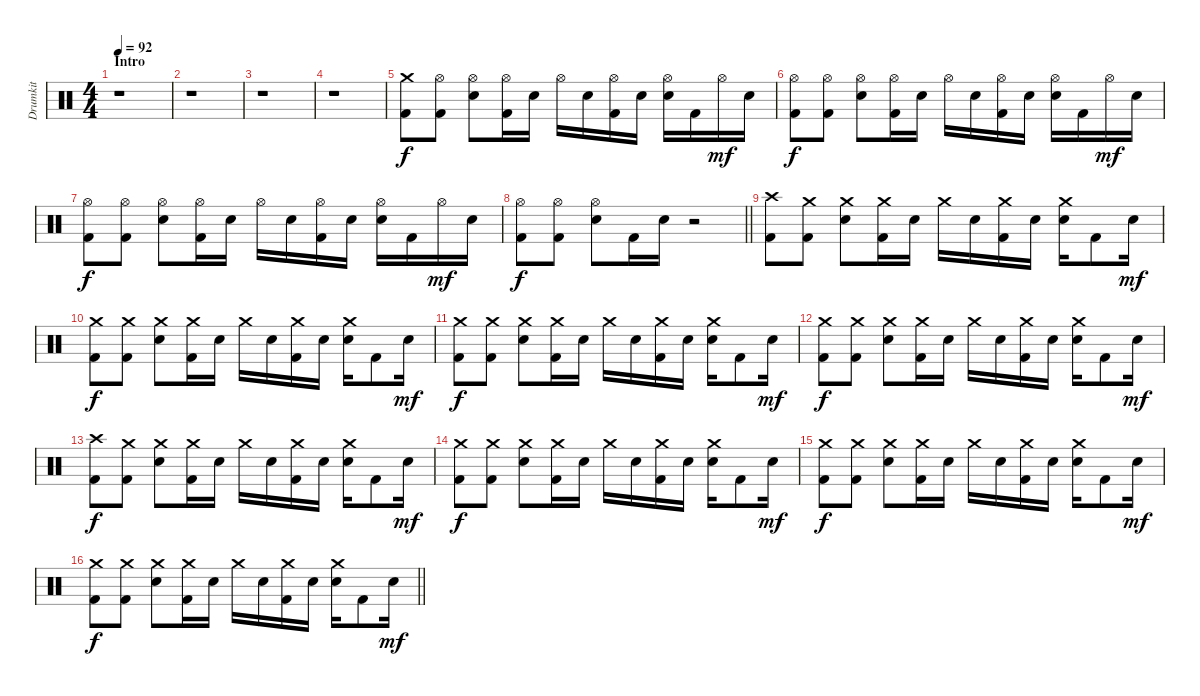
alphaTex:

\track ("Drumkit" "Drumkit") {instrument percussion}
\staff {score}
\articulation defaults
\ts (4 4)
\section ("" "Intro")
\tempo 92
\clef neutral
\ks c
r.1{dy f} |
r.1 |
r.1 |
r.1 |
("Crash medium (hit)" "Kick (hit) 2").8 ("Hi-Hat (open)" "Kick (hit) 2").8 ("Hi-Hat (open)" "Snare (hit) 2").8 ("Hi-Hat (open)" "Kick (hit) 2").16 "Snare (hit) 2".16 "Hi-Hat (open)".16 "Snare (hit) 2".16 ("Hi-Hat (open)" "Kick (hit) 2").16 "Snare (hit) 2".16 ("Hi-Hat (open)" "Snare (hit) 2").16 "Kick (hit) 2".16 "Hi-Hat (open)".16{dy mf} "Snare (hit) 2".16 |
("Hi-Hat (open)" "Kick (hit) 2").8{dy f} ("Hi-Hat (open)" "Kick (hit) 2").8 ("Hi-Hat (open)" "Snare (hit) 2").8 ("Hi-Hat (open)" "Kick (hit) 2").16 "Snare (hit) 2".16 "Hi-Hat (open)".16 "Snare (hit) 2".16 ("Hi-Hat (open)" "Kick (hit) 2").16 "Snare (hit) 2".16 ("Hi-Hat (open)" "Snare (hit) 2").16 "Kick (hit) 2".16 "Hi-Hat (open)".16{dy mf} "Snare (hit) 2".16 |
("Hi-Hat (open)" "Kick (hit) 2").8{dy f} ("Hi-Hat (open)" "Kick (hit) 2").8 ("Hi-Hat (open)" "Snare (hit) 2").8 ("Hi-Hat (open)" "Kick (hit) 2").16 "Snare (hit) 2".16 "Hi-Hat (open)".16 "Snare (hit) 2".16 ("Hi-Hat (open)" "Kick (hit) 2").16 "Snare (hit) 2".16 ("Hi-Hat (open)" "Snare (hit) 2").16 "Kick (hit) 2".16 "Hi-Hat (open)".16{dy mf} "Snare (hit) 2".16 |
\barLineRight lightlight
("Hi-Hat (open)" "Kick (hit) 2").8{dy f} ("Hi-Hat (open)" "Kick (hit) 2").8 ("Hi-Hat (open)" "Snare (hit) 2").8 "Kick (hit) 2".16 "Snare (hit) 2".16 r.2 |
\section ("" "")
("Crash high (hit)" "Kick (hit) 2").8 ("Crash medium (hit)" "Kick (hit) 2").8 ("Crash medium (hit)" "Snare (hit) 2").8 ("Crash medium (hit)" "Kick (hit) 2").16 "Snare (hit) 2".16 "Crash medium (hit)".16 "Snare (hit) 2".16 ("Crash medium (hit)" "Kick (hit) 2").16 "Snare (hit) 2".16 ("Crash medium (hit)" "Snare (hit) 2").16 "Kick (hit) 2".8 "Snare (hit) 2".16{dy mf} |
("Crash medium (hit)" "Kick (hit) 2").8{dy f} ("Crash medium (hit)" "Kick (hit) 2").8 ("Crash medium (hit)" "Snare (hit) 2").8 ("Crash medium (hit)" "Kick (hit) 2").16 "Snare (hit) 2".16 "Crash medium (hit)".16 "Snare (hit) 2".16 ("Crash medium (hit)" "Kick (hit) 2").16 "Snare (hit) 2".16 ("Crash medium (hit)" "Snare (hit) 2").16 "Kick (hit) 2".8 "Snare (hit) 2".16{dy mf} |
("Crash medium (hit)" "Kick (hit) 2").8{dy f} ("Crash medium (hit)" "Kick (hit) 2").8 ("Crash medium (hit)" "Snare (hit) 2").8 ("Crash medium (hit)" "Kick (hit) 2").16 "Snare (hit) 2".16 "Crash medium (hit)".16 "Snare (hit) 2".16 ("Crash medium (hit)" "Kick (hit) 2").16 "Snare (hit) 2".16 ("Crash medium (hit)" "Snare (hit) 2").16 "Kick (hit) 2".8 "Snare (hit) 2".16{dy mf} |
("Crash medium (hit)" "Kick (hit) 2").8{dy f} ("Crash medium (hit)" "Kick (hit) 2").8 ("Crash medium (hit)" "Snare (hit) 2").8 ("Crash medium (hit)" "Kick (hit) 2").16 "Snare (hit) 2".16 "Crash medium (hit)".16 "Snare (hit) 2".16 ("Crash medium (hit)" "Kick (hit) 2").16 "Snare (hit) 2".16 ("Crash medium (hit)" "Snare (hit) 2").16 "Kick (hit) 2".8 "Snare (hit) 2".16{dy mf} |
("Crash high (hit)" "Kick (hit) 2").8{dy f} ("Crash medium (hit)" "Kick (hit) 2").8 ("Crash medium (hit)" "Snare (hit) 2").8 ("Crash medium (hit)" "Kick (hit) 2").16 "Snare (hit) 2".16 "Crash medium (hit)".16 "Snare (hit) 2".16 ("Crash medium (hit)" "Kick (hit) 2").16 "Snare (hit) 2".16 ("Crash medium (hit)" "Snare (hit) 2").16 "Kick (hit) 2".8 "Snare (hit) 2".16{dy mf} |
("Crash medium (hit)" "Kick (hit) 2").8{dy f} ("Crash medium (hit)" "Kick (hit) 2").8 ("Crash medium (hit)" "Snare (hit) 2").8 ("Crash medium (hit)" "Kick (hit) 2").16 "Snare (hit) 2".16 "Crash medium (hit)".16 "Snare (hit) 2".16 ("Crash medium (hit)" "Kick (hit) 2").16 "Snare (hit) 2".16 ("Crash medium (hit)" "Snare (hit) 2").16 "Kick (hit) 2".8 "Snare (hit) 2".16{dy mf} |
("Crash medium (hit)" "Kick (hit) 2").8{dy f} ("Crash medium (hit)" "Kick (hit) 2").8 ("Crash medium (hit)" "Snare (hit) 2").8 ("Crash medium (hit)" "Kick (hit) 2").16 "Snare (hit) 2".16 "Crash medium (hit)".16 "Snare (hit) 2".16 ("Crash medium (hit)" "Kick (hit) 2").16 "Snare (hit) 2".16 ("Crash medium (hit)" "Snare (hit) 2").16 "Kick (hit) 2".8 "Snare (hit) 2".16{dy mf} |
\barLineRight lightlight
("Crash medium (hit)" "Kick (hit) 2").8{dy f} ("Crash medium (hit)" "Kick (hit) 2").8 ("Crash medium (hit)" "Snare (hit) 2").8 ("Crash medium (hit)" "Kick (hit) 2").16 "Snare (hit) 2".16 "Crash medium (hit)".16 "Snare (hit) 2".16 ("Crash medium (hit)" "Kick (hit) 2").16 "Snare (hit) 2".16 ("Crash medium (hit)" "Snare (hit) 2").16 "Kick (hit) 2".8 "Snare (hit) 2".16{dy mf}
